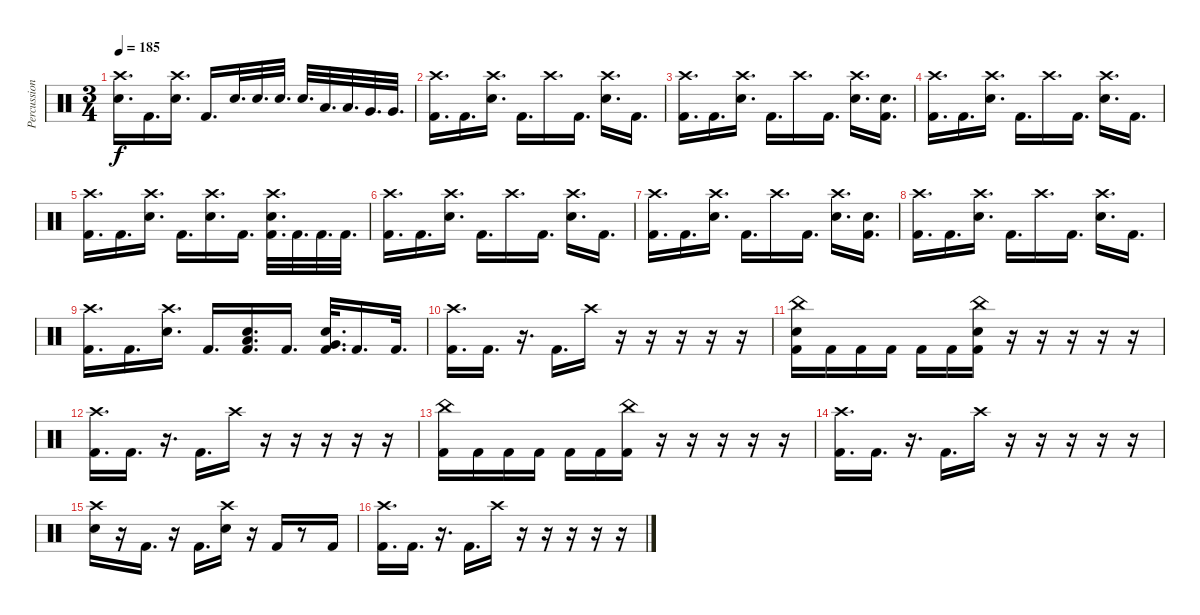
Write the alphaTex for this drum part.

\track ("Percussion" "Percussion") {instrument percussion}
\staff {score}
\articulation defaults
\ts (3 4)
\tempo 185
\clef neutral
\ks c
("Crash high (hit)" "Electric Snare (hit)").16{d dy f} "Kick (hit) 2".16{d} ("Crash high (hit)" "Electric Snare (hit)").16{d} "Kick (hit) 2".16{d} "Electric Snare (hit)".32{d} "Electric Snare (hit)".32{d} "Electric Snare (hit)".32{d} "Electric Snare (hit)".32{d} "Low Tom (hit)".32{d} "Low Tom (hit)".32{d} "Very Low Tom (hit)".32{d} "Very Low Tom (hit)".32{d} |
("Crash high (hit)" "Kick (hit) 2").16{d} "Kick (hit) 2".16{d} ("Crash high (hit)" "Electric Snare (hit)").16{d} "Kick (hit) 2".16{d} "Crash high (hit)".16{d} "Kick (hit) 2".16{d} ("Crash high (hit)" "Electric Snare (hit)").16{d} "Kick (hit) 2".16{d} |
("Crash high (hit)" "Kick (hit) 2").16{d} "Kick (hit) 2".16{d} ("Crash high (hit)" "Electric Snare (hit)").16{d} "Kick (hit) 2".16{d} "Crash high (hit)".16{d} "Kick (hit) 2".16{d} ("Crash high (hit)" "Electric Snare (hit)").16{d} ("Electric Snare (hit)" "Kick (hit) 2").16{d} |
("Crash high (hit)" "Kick (hit) 2").16{d} "Kick (hit) 2".16{d} ("Crash high (hit)" "Electric Snare (hit)").16{d} "Kick (hit) 2".16{d} "Crash high (hit)".16{d} "Kick (hit) 2".16{d} ("Crash high (hit)" "Electric Snare (hit)").16{d} "Kick (hit) 2".16{d} |
("Crash high (hit)" "Kick (hit) 2").16{d} "Kick (hit) 2".16{d} ("Crash high (hit)" "Electric Snare (hit)").16{d} "Kick (hit) 2".16{d} ("Crash high (hit)" "Electric Snare (hit)").16{d} "Kick (hit) 2".16{d} ("Crash high (hit)" "Electric Snare (hit)" "Kick (hit) 2").32{d} "Kick (hit) 2".32{d} "Kick (hit) 2".32{d} "Kick (hit) 2".32{d} |
("Crash high (hit)" "Kick (hit) 2").16{d} "Kick (hit) 2".16{d} ("Crash high (hit)" "Electric Snare (hit)").16{d} "Kick (hit) 2".16{d} "Crash high (hit)".16{d} "Kick (hit) 2".16{d} ("Crash high (hit)" "Electric Snare (hit)").16{d} "Kick (hit) 2".16{d} |
("Crash high (hit)" "Kick (hit) 2").16{d} "Kick (hit) 2".16{d} ("Crash high (hit)" "Electric Snare (hit)").16{d} "Kick (hit) 2".16{d} "Crash high (hit)".16{d} "Kick (hit) 2".16{d} ("Crash high (hit)" "Electric Snare (hit)").16{d} ("Electric Snare (hit)" "Kick (hit) 2").16{d} |
("Crash high (hit)" "Kick (hit) 2").16{d} "Kick (hit) 2".16{d} ("Crash high (hit)" "Electric Snare (hit)").16{d} "Kick (hit) 2".16{d} "Crash high (hit)".16{d} "Kick (hit) 2".16{d} ("Crash high (hit)" "Electric Snare (hit)").16{d} "Kick (hit) 2".16{d} |
("Crash high (hit)" "Kick (hit) 2").16{d} "Kick (hit) 2".16{d} ("Crash high (hit)" "Electric Snare (hit)").16{d} "Kick (hit) 2".16{d} ("Low Tom (hit)" "Electric Snare (hit)" "Kick (hit) 2").16{d} "Kick (hit) 2".16{d} ("Very Low Tom (hit)" "Electric Snare (hit)" "Kick (hit) 2").32{d} "Kick (hit) 2".16{d} "Kick (hit) 2".32{d} |
("Crash high (hit)" "Kick (hit) 2").16{d} "Kick (hit) 2".16{d} r.16{d} "Kick (hit) 2".16{d} "Crash high (hit)".16 r.16 r.16 r.16 r.16 r.16 |
("China (hit)" "Electric Snare (hit)" "Kick (hit) 2").16 "Kick (hit) 2".16 "Kick (hit) 2".16 "Kick (hit) 2".16 "Kick (hit) 2".16 "Kick (hit) 2".16 ("China (hit)" "Electric Snare (hit)" "Kick (hit) 2").16 r.16 r.16 r.16 r.16 r.16 |
("Crash high (hit)" "Kick (hit) 2").16{d} "Kick (hit) 2".16{d} r.16{d} "Kick (hit) 2".16{d} "Crash high (hit)".16 r.16 r.16 r.16 r.16 r.16 |
("China (hit)" "Kick (hit) 2").16 "Kick (hit) 2".16 "Kick (hit) 2".16 "Kick (hit) 2".16 "Kick (hit) 2".16 "Kick (hit) 2".16 ("China (hit)" "Kick (hit) 2").16 r.16 r.16 r.16 r.16 r.16 |
("Crash high (hit)" "Kick (hit) 2").16{d} "Kick (hit) 2".16{d} r.16{d} "Kick (hit) 2".16{d} "Crash high (hit)".16 r.16 r.16 r.16 r.16 r.16 |
("Crash high (hit)" "Electric Snare (hit)").16 r.16 "Kick (hit) 2".16{d} r.16 "Kick (hit) 2".16{d} ("Crash high (hit)" "Electric Snare (hit)").16 r.16 "Kick (hit) 2".16 r.8 "Kick (hit) 2".16 |
("Crash high (hit)" "Kick (hit) 2").16{d} "Kick (hit) 2".16{d} r.16{d} "Kick (hit) 2".16{d} "Crash high (hit)".16 r.16 r.16 r.16 r.16 r.16
